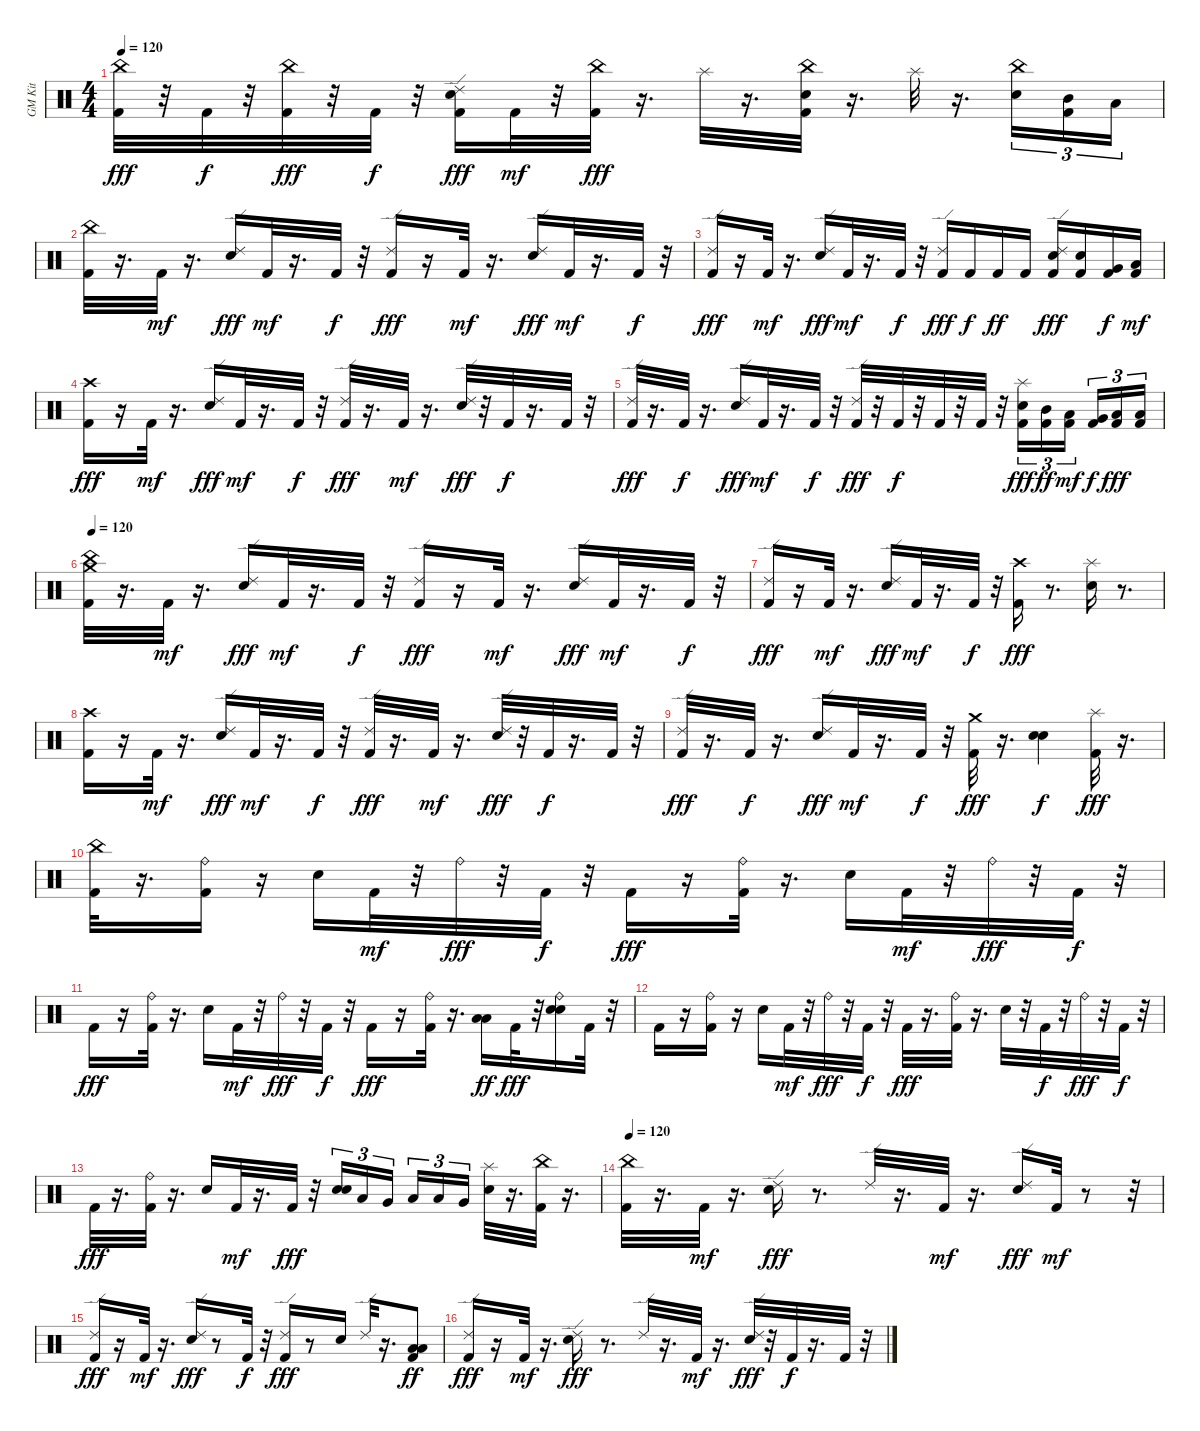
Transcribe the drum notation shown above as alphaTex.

\track ("GM Kit" "GM Kit") {instrument percussion}
\staff {score}
\articulation defaults
\ts (4 4)
\tempo 120
\clef neutral
\ks c
("Kick (hit) 2" "China (hit)").32{dy fff} r.32 "Kick (hit) 2".32{dy f} r.32 ("Kick (hit) 2" "China (hit)").32{dy fff} r.32 "Kick (hit) 2".32{dy f} r.32 ("Kick (hit) 2" "Snare (hit) 2" "Ride (edge) 2").16{dy fff} "Kick (hit) 2".32{dy mf} r.32 ("Kick (hit) 2" "China (hit)").32{dy fff} r.16{d} "Splash (hit)".32 r.16{d} ("Kick (hit) 2" "Snare (hit) 2" "China (hit)").32 r.16{d} "Splash (hit)".32 r.16{d} ("Snare (hit) 2" "China (hit)").16{tu (3 2)} ("Kick (hit) 2" "Mid Tom (hit)").16{tu (3 2)} "Low Tom (hit)".16{tu (3 2)} |
("Kick (hit) 2" "China (hit)").32 r.16{d} "Kick (hit) 2".32{dy mf} r.16{d} ("Snare (hit) 2" "Ride (edge) 2").16{dy fff} "Kick (hit) 2".32{dy mf} r.16{d} "Kick (hit) 2".32{dy f} r.32 ("Kick (hit) 2" "Ride (edge) 2").16{dy fff} r.16 "Kick (hit) 2".32{dy mf} r.16{d} ("Snare (hit) 2" "Ride (edge) 2").16{dy fff} "Kick (hit) 2".32{dy mf} r.16{d} "Kick (hit) 2".32{dy f} r.32 |
("Kick (hit) 2" "Ride (edge) 2").16{dy fff} r.16 "Kick (hit) 2".32{dy mf} r.16{d} ("Snare (hit) 2" "Ride (edge) 2").16{dy fff} "Kick (hit) 2".32{dy mf} r.16{d} "Kick (hit) 2".32{dy f} r.32 ("Kick (hit) 2" "Ride (edge) 2").16{dy fff} "Kick (hit) 2".16{dy f} "Kick (hit) 2".16{dy ff} "Kick (hit) 2".16 ("Kick (hit) 2" "Snare (hit) 2" "Ride (edge) 2").16{dy fff} ("Kick (hit) 2" "Snare (hit) 2").16 ("Kick (hit) 2" "Very Low Tom (hit)").16{dy f} ("Kick (hit) 2" "Low Floor Tom (hit)").16{dy mf} |
("Kick (hit) 2" "Crash high (hit)").16{dy fff} r.16 "Kick (hit) 2".32{dy mf} r.16{d} ("Snare (hit) 2" "Ride (edge) 2").16{dy fff} "Kick (hit) 2".32{dy mf} r.16{d} "Kick (hit) 2".32{dy f} r.32 ("Kick (hit) 2" "Ride (edge) 2").32{dy fff} r.16{d} "Kick (hit) 2".32{dy mf} r.16{d} ("Snare (hit) 2" "Ride (edge) 2").32{dy fff} r.32 "Kick (hit) 2".32{dy f} r.16{d} "Kick (hit) 2".32 r.32 |
("Kick (hit) 2" "Ride (edge) 2").32{dy fff} r.16{d} "Kick (hit) 2".32{dy f} r.16{d} ("Snare (hit) 2" "Ride (edge) 2").16{dy fff} "Kick (hit) 2".32{dy mf} r.16{d} "Kick (hit) 2".32{dy f} r.32 ("Kick (hit) 2" "Ride (edge) 2").32{dy fff} r.32 "Kick (hit) 2".32{dy f} r.32 "Kick (hit) 2".32 r.32 "Kick (hit) 2".32 r.32 ("Kick (hit) 2" "Snare (hit) 2" "Splash (hit)").16{tu (3 2) dy fff} ("Kick (hit) 2" "Mid Tom (hit)").16{tu (3 2) dy ff} ("Kick (hit) 2" "Low Tom (hit)").16{tu (3 2) dy mf beam splitsecondary} ("Kick (hit) 2" "Very Low Tom (hit)").16{tu (3 2) dy f} ("Kick (hit) 2" "Low Floor Tom (hit)").16{tu (3 2) dy fff} ("Kick (hit) 2" "Low Floor Tom (hit)").16{tu (3 2)} |
\tempo 120
("Kick (hit) 2" "China (hit)" "Crash medium (hit)").32 r.16{d} "Kick (hit) 2".32{dy mf} r.16{d} ("Snare (hit) 2" "Ride (edge) 2").16{dy fff} "Kick (hit) 2".32{dy mf} r.16{d} "Kick (hit) 2".32{dy f} r.32 ("Kick (hit) 2" "Ride (edge) 2").16{dy fff} r.16 "Kick (hit) 2".32{dy mf} r.16{d} ("Snare (hit) 2" "Ride (edge) 2").16{dy fff} "Kick (hit) 2".32{dy mf} r.16{d} "Kick (hit) 2".32{dy f} r.32 |
("Kick (hit) 2" "Ride (edge) 2").16{dy fff} r.16 "Kick (hit) 2".32{dy mf} r.16{d} ("Snare (hit) 2" "Ride (edge) 2").16{dy fff} "Kick (hit) 2".32{dy mf} r.16{d} "Kick (hit) 2".32{dy f} r.32 ("Kick (hit) 2" "Crash high (hit)").16{dy fff} r.8{d} ("Snare (hit) 2" "Splash (hit)").16 r.8{d} |
("Kick (hit) 2" "Crash high (hit)").16 r.16 "Kick (hit) 2".32{dy mf} r.16{d} ("Snare (hit) 2" "Ride (edge) 2").16{dy fff} "Kick (hit) 2".32{dy mf} r.16{d} "Kick (hit) 2".32{dy f} r.32 ("Kick (hit) 2" "Ride (edge) 2").32{dy fff} r.16{d} "Kick (hit) 2".32{dy mf} r.16{d} ("Snare (hit) 2" "Ride (edge) 2").32{dy fff} r.32 "Kick (hit) 2".32{dy f} r.16{d} "Kick (hit) 2".32 r.32 |
("Kick (hit) 2" "Ride (edge) 2").32{dy fff} r.16{d} "Kick (hit) 2".32{dy f} r.16{d} ("Snare (hit) 2" "Ride (edge) 2").16{dy fff} "Kick (hit) 2".32{dy mf} r.16{d} "Kick (hit) 2".32{dy f} r.32 ("Kick (hit) 2" "Crash medium (hit)").32{dy fff} r.16{d} ("Snare (hit) 2" "Snare (hit) 2").4{dy f} ("Kick (hit) 2" "Splash (hit)").32{dy fff} r.16{d} |
("Kick (hit) 2" "China (hit)").32 r.16{d} ("Kick (hit) 2" "Ride (bell)").16 r.16 "Snare (hit) 2".16 "Kick (hit) 2".32{dy mf} r.32 "Ride (bell)".32{dy fff} r.32 "Kick (hit) 2".32{dy f} r.32 "Kick (hit) 2".16{dy fff} r.16 ("Kick (hit) 2" "Ride (bell)").32 r.16{d} "Snare (hit) 2".16 "Kick (hit) 2".32{dy mf} r.32 "Ride (bell)".32{dy fff} r.32 "Kick (hit) 2".32{dy f} r.32 |
"Kick (hit) 2".16{dy fff} r.16 ("Kick (hit) 2" "Ride (bell)").32 r.16{d} "Snare (hit) 2".16 "Kick (hit) 2".32{dy mf} r.32 "Ride (bell)".32{dy fff} r.32 "Kick (hit) 2".32{dy f} r.32 "Kick (hit) 2".16{dy fff} r.16 ("Kick (hit) 2" "Ride (bell)").32 r.16{d} ("Low Floor Tom (hit)" "Low Floor Tom (hit)").16{dy ff} "Kick (hit) 2".32{dy fff} r.32 ("Snare (hit) 2" "Ride (bell)" "Snare (hit) 2").16 "Kick (hit) 2".32 r.32 |
"Kick (hit) 2".16 r.16 ("Kick (hit) 2" "Ride (bell)").16 r.16 "Snare (hit) 2".16 "Kick (hit) 2".32{dy mf} r.32 "Ride (bell)".32{dy fff} r.32 "Kick (hit) 2".32{dy f} r.32 "Kick (hit) 2".32{dy fff} r.16{d} ("Kick (hit) 2" "Ride (bell)").32 r.16{d} "Snare (hit) 2".32 r.32 "Kick (hit) 2".32{dy f} r.32 "Ride (bell)".32{dy fff} r.32 "Kick (hit) 2".32{dy f} r.32 |
"Kick (hit) 2".32{dy fff} r.16{d} ("Kick (hit) 2" "Ride (bell)").32 r.16{d} "Snare (hit) 2".16 "Kick (hit) 2".32{dy mf} r.16{d} "Kick (hit) 2".32{dy fff} r.32 ("Snare (hit) 2" "Electric Snare (hit)").16{tu (3 2)} "Low Tom (hit)".16{tu (3 2)} "Very Low Tom (hit)".16{tu (3 2) beam splitsecondary} "Low Floor Tom (hit)".16{tu (3 2)} "Low Tom (hit)".16{tu (3 2)} "Very Low Tom (hit)".16{tu (3 2)} ("Electric Snare (hit)" "Splash (hit)").32 r.16{d} ("Kick (hit) 2" "China (hit)").32 r.16{d} |
\tempo 120
("Kick (hit) 2" "China (hit)").32 r.16{d} "Kick (hit) 2".32{dy mf} r.16{d} ("Snare (hit) 2" "Ride (edge) 2").16{dy fff} r.8{d} "Ride (edge) 2".32 r.16{d} "Kick (hit) 2".32{dy mf} r.16{d} ("Snare (hit) 2" "Ride (edge) 2").16{dy fff} "Kick (hit) 2".32{dy mf} r.8 r.32 |
("Kick (hit) 2" "Ride (edge) 2").16{dy fff} r.16 "Kick (hit) 2".32{dy mf} r.16{d} ("Snare (hit) 2" "Ride (edge) 2").16{dy fff} r.8 "Kick (hit) 2".32{dy f} r.32 ("Kick (hit) 2" "Ride (edge) 2").16{dy fff} r.8 "Snare (hit) 2".16 "Ride (edge) 2".32 r.16{d} ("Kick (hit) 2" "Low Floor Tom (hit)" "Low Floor Tom (hit)").8{dy ff} |
("Kick (hit) 2" "Ride (edge) 2").16{dy fff} r.16 "Kick (hit) 2".32{dy mf} r.16{d} ("Snare (hit) 2" "Ride (edge) 2").16{dy fff} r.8{d} "Ride (edge) 2".32 r.16{d} "Kick (hit) 2".32{dy mf} r.16{d} ("Snare (hit) 2" "Ride (edge) 2").32{dy fff} r.32 "Kick (hit) 2".32{dy f} r.16{d} "Kick (hit) 2".32 r.32
